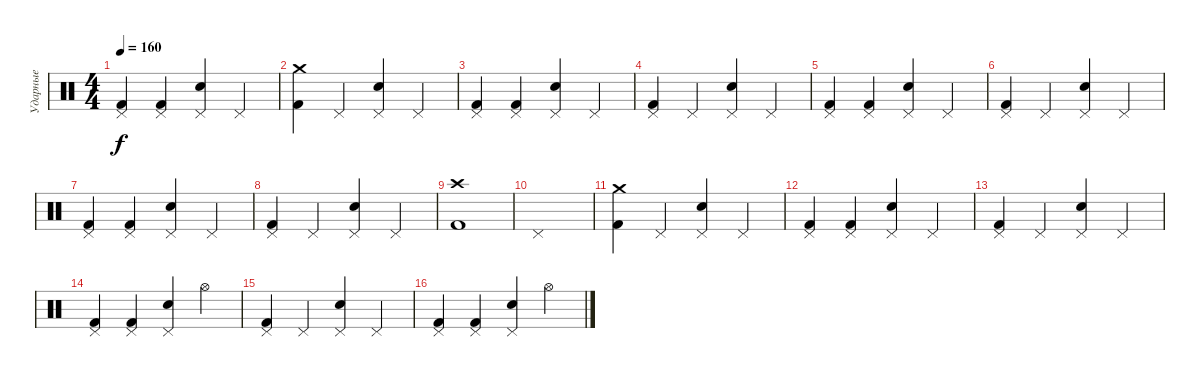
\track ("Ударные" "Ударные") {instrument percussion}
\staff {score}
\articulation defaults
\ts (4 4)
\tempo 160
\clef neutral
\ks c
("Pedal Hi-Hat (hit)" "Kick (hit) 2").4{dy f} ("Pedal Hi-Hat (hit)" "Kick (hit) 2").4 ("Snare (hit) 2" "Pedal Hi-Hat (hit)").4 "Pedal Hi-Hat (hit)".4 |
("Crash medium (hit)" "Kick (hit) 2").4 "Pedal Hi-Hat (hit)".4 ("Snare (hit) 2" "Pedal Hi-Hat (hit)").4 "Pedal Hi-Hat (hit)".4 |
("Pedal Hi-Hat (hit)" "Kick (hit) 2").4 ("Pedal Hi-Hat (hit)" "Kick (hit) 2").4 ("Snare (hit) 2" "Pedal Hi-Hat (hit)").4 "Pedal Hi-Hat (hit)".4 |
("Pedal Hi-Hat (hit)" "Kick (hit) 2").4 "Pedal Hi-Hat (hit)".4 ("Snare (hit) 2" "Pedal Hi-Hat (hit)").4 "Pedal Hi-Hat (hit)".4 |
("Pedal Hi-Hat (hit)" "Kick (hit) 2").4 ("Pedal Hi-Hat (hit)" "Kick (hit) 2").4 ("Snare (hit) 2" "Pedal Hi-Hat (hit)").4 "Pedal Hi-Hat (hit)".4 |
("Pedal Hi-Hat (hit)" "Kick (hit) 2").4 "Pedal Hi-Hat (hit)".4 ("Snare (hit) 2" "Pedal Hi-Hat (hit)").4 "Pedal Hi-Hat (hit)".4 |
("Pedal Hi-Hat (hit)" "Kick (hit) 2").4 ("Pedal Hi-Hat (hit)" "Kick (hit) 2").4 ("Snare (hit) 2" "Pedal Hi-Hat (hit)").4 "Pedal Hi-Hat (hit)".4 |
("Pedal Hi-Hat (hit)" "Kick (hit) 2").4 "Pedal Hi-Hat (hit)".4 ("Snare (hit) 2" "Pedal Hi-Hat (hit)").4 "Pedal Hi-Hat (hit)".4 |
("Crash high (hit)" "Kick (hit) 2").1 |
"Pedal Hi-Hat (hit)".1 |
("Crash medium (hit)" "Kick (hit) 2").4 "Pedal Hi-Hat (hit)".4 ("Snare (hit) 2" "Pedal Hi-Hat (hit)").4 "Pedal Hi-Hat (hit)".4 |
("Pedal Hi-Hat (hit)" "Kick (hit) 2").4 ("Pedal Hi-Hat (hit)" "Kick (hit) 2").4 ("Snare (hit) 2" "Pedal Hi-Hat (hit)").4 "Pedal Hi-Hat (hit)".4 |
("Pedal Hi-Hat (hit)" "Kick (hit) 2").4 "Pedal Hi-Hat (hit)".4 ("Snare (hit) 2" "Pedal Hi-Hat (hit)").4 "Pedal Hi-Hat (hit)".4 |
("Pedal Hi-Hat (hit)" "Kick (hit) 2").4 ("Pedal Hi-Hat (hit)" "Kick (hit) 2").4 ("Snare (hit) 2" "Pedal Hi-Hat (hit)").4 "Hi-Hat (open)".4 |
("Pedal Hi-Hat (hit)" "Kick (hit) 2").4 "Pedal Hi-Hat (hit)".4 ("Snare (hit) 2" "Pedal Hi-Hat (hit)").4 "Pedal Hi-Hat (hit)".4 |
("Pedal Hi-Hat (hit)" "Kick (hit) 2").4 ("Pedal Hi-Hat (hit)" "Kick (hit) 2").4 ("Snare (hit) 2" "Pedal Hi-Hat (hit)").4 "Hi-Hat (open)".4
